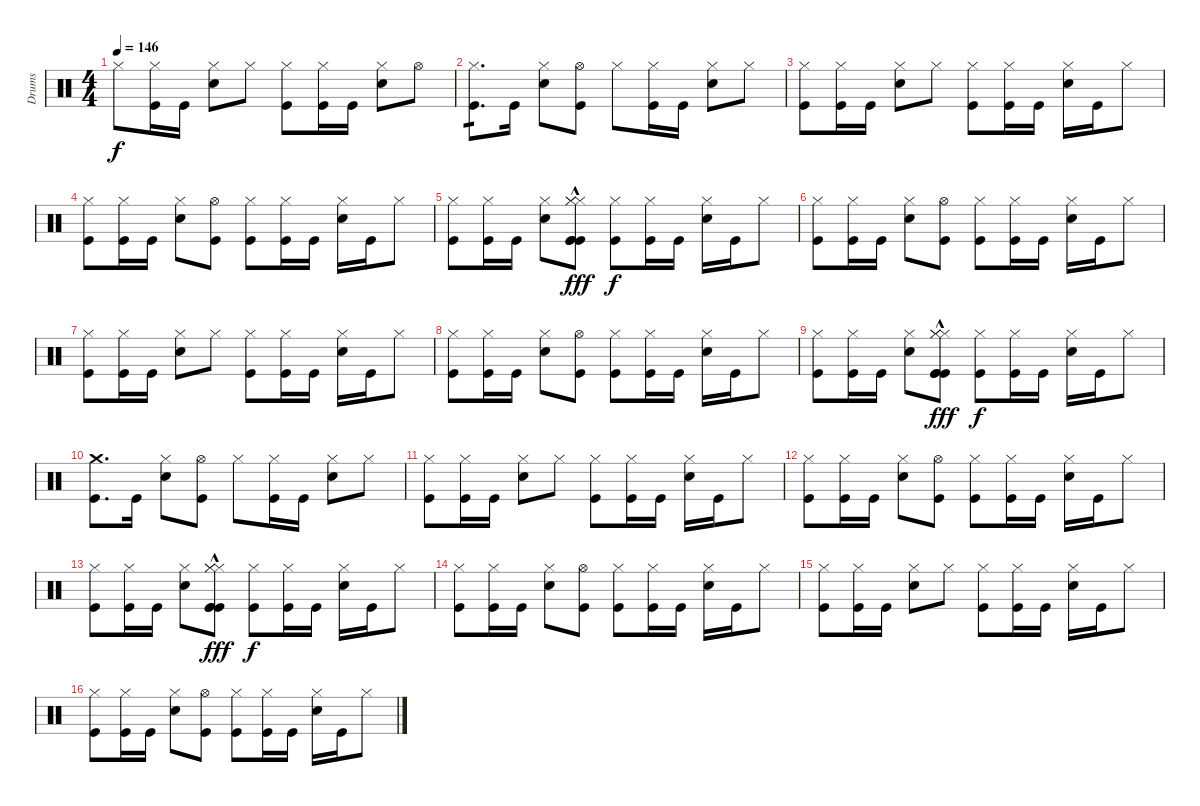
\track ("Drums" "Drums") {instrument percussion}
\staff {score}
\articulation defaults
\ts (4 4)
\tempo 146
\clef neutral
\ks c "Hi-Hat (closed)".8{dy f}
("Hi-Hat (closed)" "Kick (hit)").16 "Kick (hit)".16 ("Hi-Hat (closed)" "Electric Snare (hit)").8 "Hi-Hat (closed)".8 ("Hi-Hat (closed)" "Kick (hit)").8 ("Hi-Hat (closed)" "Kick (hit)").16 "Kick (hit)".16 ("Hi-Hat (closed)" "Electric Snare (hit)").8 "Hi-Hat (open)".8 |
("Hi-Hat (closed)" "Kick (hit)").8{d tp 1} "Kick (hit)".16 ("Hi-Hat (closed)" "Electric Snare (hit)").8 ("Hi-Hat (open)" "Kick (hit)").8 "Hi-Hat (closed)".8 ("Hi-Hat (closed)" "Kick (hit)").16 "Kick (hit)".16 ("Hi-Hat (closed)" "Electric Snare (hit)").8 "Hi-Hat (closed)".8 |
("Hi-Hat (closed)" "Kick (hit)").8 ("Hi-Hat (closed)" "Kick (hit)").16 "Kick (hit)".16 ("Hi-Hat (closed)" "Electric Snare (hit)").8 "Hi-Hat (closed)".8 ("Hi-Hat (closed)" "Kick (hit)").8 ("Hi-Hat (closed)" "Kick (hit)").16 "Kick (hit)".16 ("Hi-Hat (closed)" "Electric Snare (hit)").16 "Kick (hit)".16 "Hi-Hat (closed)".8 |
("Hi-Hat (closed)" "Kick (hit)").8 ("Hi-Hat (closed)" "Kick (hit)").16 "Kick (hit)".16 ("Hi-Hat (closed)" "Electric Snare (hit)").8 ("Hi-Hat (open)" "Kick (hit)").8 ("Hi-Hat (closed)" "Kick (hit)").8 ("Hi-Hat (closed)" "Kick (hit)").16 "Kick (hit)".16 ("Hi-Hat (closed)" "Electric Snare (hit)").16 "Kick (hit)".16 "Hi-Hat (closed)".8 |
("Hi-Hat (closed)" "Kick (hit)").8 ("Hi-Hat (closed)" "Kick (hit)").16 "Kick (hit)".16 ("Hi-Hat (closed)" "Electric Snare (hit)").8 ("Hi-Hat (closed)"{hac} "Hi-Hat (closed)"{hac} "Hi-Hat (closed)"{hac} "Kick (hit)"{hac} "Kick (hit)"{hac} "Kick (hit)"{hac}).8{dy fff} ("Hi-Hat (closed)" "Kick (hit)").8{dy f} ("Hi-Hat (closed)" "Kick (hit)").16 "Kick (hit)".16 ("Hi-Hat (closed)" "Electric Snare (hit)").16 "Kick (hit)".16 "Hi-Hat (closed)".8 |
("Hi-Hat (closed)" "Kick (hit)").8 ("Hi-Hat (closed)" "Kick (hit)").16 "Kick (hit)".16 ("Hi-Hat (closed)" "Electric Snare (hit)").8 ("Hi-Hat (open)" "Kick (hit)").8 ("Hi-Hat (closed)" "Kick (hit)").8 ("Hi-Hat (closed)" "Kick (hit)").16 "Kick (hit)".16 ("Hi-Hat (closed)" "Electric Snare (hit)").16 "Kick (hit)".16 "Hi-Hat (closed)".8 |
("Hi-Hat (closed)" "Kick (hit)").8 ("Hi-Hat (closed)" "Kick (hit)").16 "Kick (hit)".16 ("Hi-Hat (closed)" "Electric Snare (hit)").8 "Hi-Hat (closed)".8 ("Hi-Hat (closed)" "Kick (hit)").8 ("Hi-Hat (closed)" "Kick (hit)").16 "Kick (hit)".16 ("Hi-Hat (closed)" "Electric Snare (hit)").16 "Kick (hit)".16 "Hi-Hat (closed)".8 |
("Hi-Hat (closed)" "Kick (hit)").8 ("Hi-Hat (closed)" "Kick (hit)").16 "Kick (hit)".16 ("Hi-Hat (closed)" "Electric Snare (hit)").8 ("Hi-Hat (open)" "Kick (hit)").8 ("Hi-Hat (closed)" "Kick (hit)").8 ("Hi-Hat (closed)" "Kick (hit)").16 "Kick (hit)".16 ("Hi-Hat (closed)" "Electric Snare (hit)").16 "Kick (hit)".16 "Hi-Hat (closed)".8 |
("Hi-Hat (closed)" "Kick (hit)").8 ("Hi-Hat (closed)" "Kick (hit)").16 "Kick (hit)".16 ("Hi-Hat (closed)" "Electric Snare (hit)").8 ("Hi-Hat (closed)"{hac} "Hi-Hat (closed)"{hac} "Hi-Hat (closed)"{hac} "Kick (hit)"{hac} "Kick (hit)"{hac} "Kick (hit)"{hac}).8{dy fff} ("Hi-Hat (closed)" "Kick (hit)").8{dy f} ("Hi-Hat (closed)" "Kick (hit)").16 "Kick (hit)".16 ("Hi-Hat (closed)" "Electric Snare (hit)").16 "Kick (hit)".16 "Hi-Hat (closed)".8 |
("Crash medium (hit)" "Kick (hit)").8{d} "Kick (hit)".16 ("Hi-Hat (closed)" "Electric Snare (hit)").8 ("Hi-Hat (open)" "Kick (hit)").8 "Hi-Hat (closed)".8 ("Hi-Hat (closed)" "Kick (hit)").16 "Kick (hit)".16 ("Hi-Hat (closed)" "Electric Snare (hit)").8 "Hi-Hat (closed)".8 |
("Hi-Hat (closed)" "Kick (hit)").8 ("Hi-Hat (closed)" "Kick (hit)").16 "Kick (hit)".16 ("Hi-Hat (closed)" "Electric Snare (hit)").8 "Hi-Hat (closed)".8 ("Hi-Hat (closed)" "Kick (hit)").8 ("Hi-Hat (closed)" "Kick (hit)").16 "Kick (hit)".16 ("Hi-Hat (closed)" "Electric Snare (hit)").16 "Kick (hit)".16 "Hi-Hat (closed)".8 |
("Hi-Hat (closed)" "Kick (hit)").8 ("Hi-Hat (closed)" "Kick (hit)").16 "Kick (hit)".16 ("Hi-Hat (closed)" "Electric Snare (hit)").8 ("Hi-Hat (open)" "Kick (hit)").8 ("Hi-Hat (closed)" "Kick (hit)").8 ("Hi-Hat (closed)" "Kick (hit)").16 "Kick (hit)".16 ("Hi-Hat (closed)" "Electric Snare (hit)").16 "Kick (hit)".16 "Hi-Hat (closed)".8 |
("Hi-Hat (closed)" "Kick (hit)").8 ("Hi-Hat (closed)" "Kick (hit)").16 "Kick (hit)".16 ("Hi-Hat (closed)" "Electric Snare (hit)").8 ("Hi-Hat (closed)"{hac} "Hi-Hat (closed)"{hac} "Hi-Hat (closed)"{hac} "Kick (hit)"{hac} "Kick (hit)"{hac} "Kick (hit)"{hac}).8{dy fff} ("Hi-Hat (closed)" "Kick (hit)").8{dy f} ("Hi-Hat (closed)" "Kick (hit)").16 "Kick (hit)".16 ("Hi-Hat (closed)" "Electric Snare (hit)").16 "Kick (hit)".16 "Hi-Hat (closed)".8 |
("Hi-Hat (closed)" "Kick (hit)").8 ("Hi-Hat (closed)" "Kick (hit)").16 "Kick (hit)".16 ("Hi-Hat (closed)" "Electric Snare (hit)").8 ("Hi-Hat (open)" "Kick (hit)").8 ("Hi-Hat (closed)" "Kick (hit)").8 ("Hi-Hat (closed)" "Kick (hit)").16 "Kick (hit)".16 ("Hi-Hat (closed)" "Electric Snare (hit)").16 "Kick (hit)".16 "Hi-Hat (closed)".8 |
("Hi-Hat (closed)" "Kick (hit)").8 ("Hi-Hat (closed)" "Kick (hit)").16 "Kick (hit)".16 ("Hi-Hat (closed)" "Electric Snare (hit)").8 "Hi-Hat (closed)".8 ("Hi-Hat (closed)" "Kick (hit)").8 ("Hi-Hat (closed)" "Kick (hit)").16 "Kick (hit)".16 ("Hi-Hat (closed)" "Electric Snare (hit)").16 "Kick (hit)".16 "Hi-Hat (closed)".8 |
("Hi-Hat (closed)" "Kick (hit)").8 ("Hi-Hat (closed)" "Kick (hit)").16 "Kick (hit)".16 ("Hi-Hat (closed)" "Electric Snare (hit)").8 ("Hi-Hat (open)" "Kick (hit)").8 ("Hi-Hat (closed)" "Kick (hit)").8 ("Hi-Hat (closed)" "Kick (hit)").16 "Kick (hit)".16 ("Hi-Hat (closed)" "Electric Snare (hit)").16 "Kick (hit)".16 "Hi-Hat (closed)".8
